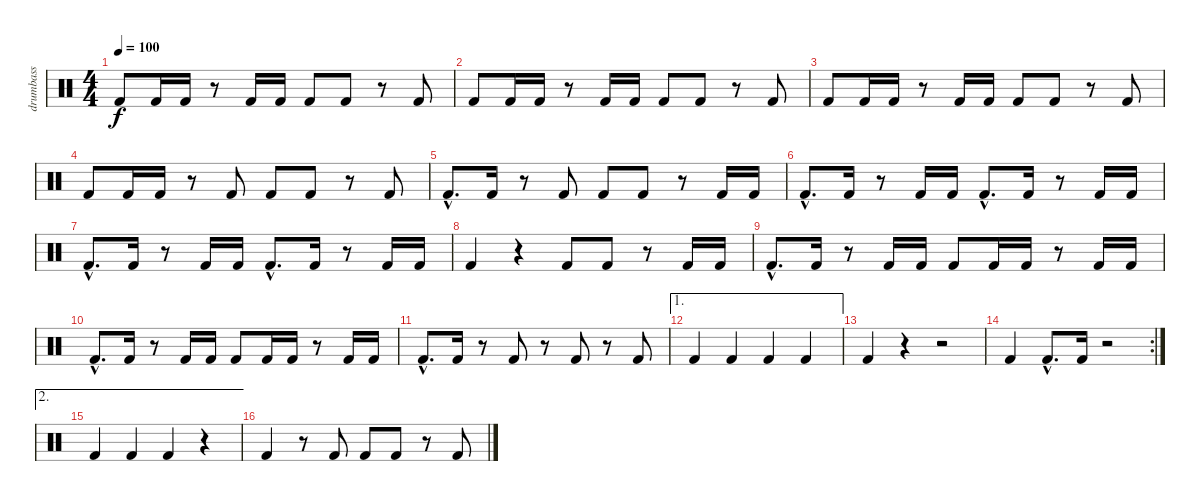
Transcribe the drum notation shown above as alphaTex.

\track ("drumbass" "drumbass") {instrument percussion}
\staff {score}
\articulation defaults
\ts (4 4)
\tempo 100
\clef neutral
\ks c "Kick (hit) 2".8{dy f} "Kick (hit) 2".16 "Kick (hit) 2".16
r.8 "Kick (hit) 2".16 "Kick (hit) 2".16 "Kick (hit) 2".8 "Kick (hit) 2".8 r.8 "Kick (hit) 2".8 |
"Kick (hit) 2".8 "Kick (hit) 2".16 "Kick (hit) 2".16 r.8 "Kick (hit) 2".16 "Kick (hit) 2".16 "Kick (hit) 2".8 "Kick (hit) 2".8 r.8 "Kick (hit) 2".8 |
"Kick (hit) 2".8 "Kick (hit) 2".16 "Kick (hit) 2".16 r.8 "Kick (hit) 2".16 "Kick (hit) 2".16 "Kick (hit) 2".8 "Kick (hit) 2".8 r.8 "Kick (hit) 2".8 |
"Kick (hit) 2".8 "Kick (hit) 2".16 "Kick (hit) 2".16 r.8 "Kick (hit) 2".8 "Kick (hit) 2".8 "Kick (hit) 2".8 r.8 "Kick (hit) 2".8 |
"Kick (hit) 2"{hac}.8{d} "Kick (hit) 2".16 r.8 "Kick (hit) 2".8 "Kick (hit) 2".8 "Kick (hit) 2".8 r.8 "Kick (hit) 2".16 "Kick (hit) 2".16 |
"Kick (hit) 2"{hac}.8{d} "Kick (hit) 2".16 r.8 "Kick (hit) 2".16 "Kick (hit) 2".16 "Kick (hit) 2"{hac}.8{d} "Kick (hit) 2".16 r.8 "Kick (hit) 2".16 "Kick (hit) 2".16 |
"Kick (hit) 2"{hac}.8{d} "Kick (hit) 2".16 r.8 "Kick (hit) 2".16 "Kick (hit) 2".16 "Kick (hit) 2"{hac}.8{d} "Kick (hit) 2".16 r.8 "Kick (hit) 2".16 "Kick (hit) 2".16 |
"Kick (hit) 2".4 r.4 "Kick (hit) 2".8 "Kick (hit) 2".8 r.8 "Kick (hit) 2".16 "Kick (hit) 2".16 |
"Kick (hit) 2"{hac}.8{d} "Kick (hit) 2".16 r.8 "Kick (hit) 2".16 "Kick (hit) 2".16 "Kick (hit) 2".8 "Kick (hit) 2".16 "Kick (hit) 2".16 r.8 "Kick (hit) 2".16 "Kick (hit) 2".16 |
"Kick (hit) 2"{hac}.8{d} "Kick (hit) 2".16 r.8 "Kick (hit) 2".16 "Kick (hit) 2".16 "Kick (hit) 2".8 "Kick (hit) 2".16 "Kick (hit) 2".16 r.8 "Kick (hit) 2".16 "Kick (hit) 2".16 |
"Kick (hit) 2"{hac}.8{d} "Kick (hit) 2".16 r.8 "Kick (hit) 2".8 r.8 "Kick (hit) 2".8 r.8 "Kick (hit) 2".8 |
\ae 1 "Kick (hit) 2".4 "Kick (hit) 2".4 "Kick (hit) 2".4 "Kick (hit) 2".4
|
"Kick (hit) 2".4 r.4 r.2 |
\rc 2 "Kick (hit) 2".4 "Kick (hit) 2"{hac}.8{d} "Kick (hit) 2".16
r.2 |
\ae 2
\section ("" "")
"Kick (hit) 2".4 "Kick (hit) 2".4 "Kick (hit) 2".4 r.4 |
"Kick (hit) 2".4 r.8 "Kick (hit) 2".8 "Kick (hit) 2".8 "Kick (hit) 2".8 r.8 "Kick (hit) 2".8
